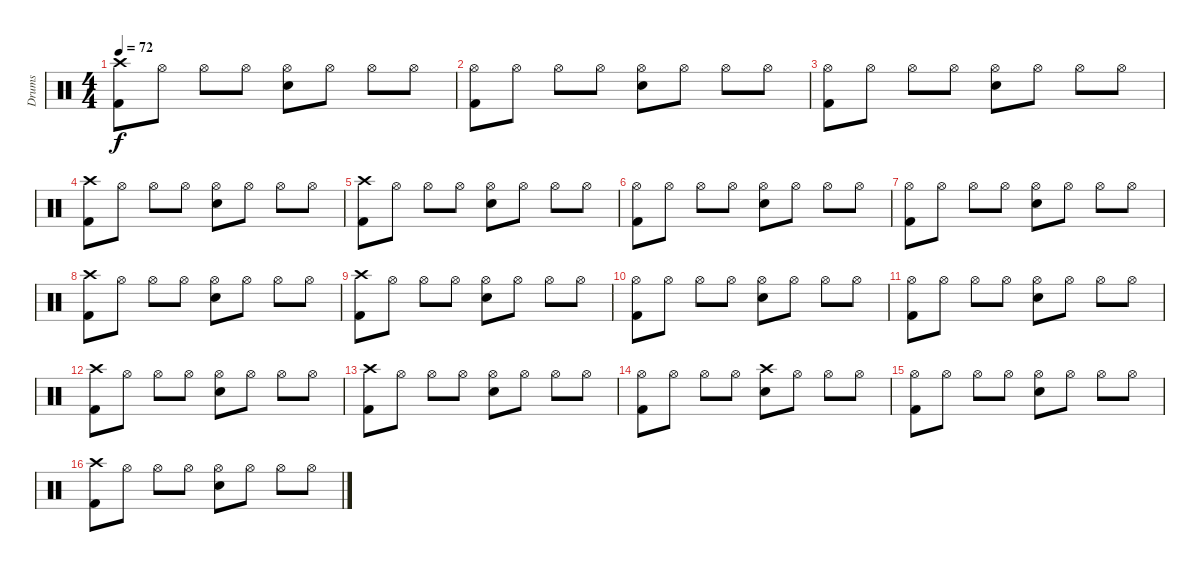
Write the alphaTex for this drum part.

\track ("Drums" "Drums") {instrument percussion}
\staff {score}
\articulation defaults
\ts (4 4)
\tempo 72
\clef neutral
\ks c
("Crash high (hit)" "Kick (hit) 2").8{dy f} "Hi-Hat (open)".8 "Hi-Hat (open)".8 "Hi-Hat (open)".8 ("Hi-Hat (open)" "Electric Snare (hit)").8 "Hi-Hat (open)".8 "Hi-Hat (open)".8 "Hi-Hat (open)".8 |
("Hi-Hat (open)" "Kick (hit) 2").8 "Hi-Hat (open)".8 "Hi-Hat (open)".8 "Hi-Hat (open)".8 ("Hi-Hat (open)" "Electric Snare (hit)").8 "Hi-Hat (open)".8 "Hi-Hat (open)".8 "Hi-Hat (open)".8 |
("Hi-Hat (open)" "Kick (hit) 2").8 "Hi-Hat (open)".8 "Hi-Hat (open)".8 "Hi-Hat (open)".8 ("Hi-Hat (open)" "Electric Snare (hit)").8 "Hi-Hat (open)".8 "Hi-Hat (open)".8 "Hi-Hat (open)".8 |
("Crash high (hit)" "Kick (hit) 2").8 "Hi-Hat (open)".8 "Hi-Hat (open)".8 "Hi-Hat (open)".8 ("Hi-Hat (open)" "Electric Snare (hit)").8 "Hi-Hat (open)".8 "Hi-Hat (open)".8 "Hi-Hat (open)".8 |
("Crash high (hit)" "Kick (hit) 2").8 "Hi-Hat (open)".8 "Hi-Hat (open)".8 "Hi-Hat (open)".8 ("Hi-Hat (open)" "Electric Snare (hit)").8 "Hi-Hat (open)".8 "Hi-Hat (open)".8 "Hi-Hat (open)".8 |
("Hi-Hat (open)" "Kick (hit) 2").8 "Hi-Hat (open)".8 "Hi-Hat (open)".8 "Hi-Hat (open)".8 ("Hi-Hat (open)" "Electric Snare (hit)").8 "Hi-Hat (open)".8 "Hi-Hat (open)".8 "Hi-Hat (open)".8 |
("Hi-Hat (open)" "Kick (hit) 2").8 "Hi-Hat (open)".8 "Hi-Hat (open)".8 "Hi-Hat (open)".8 ("Hi-Hat (open)" "Electric Snare (hit)").8 "Hi-Hat (open)".8 "Hi-Hat (open)".8 "Hi-Hat (open)".8 |
("Crash high (hit)" "Kick (hit) 2").8 "Hi-Hat (open)".8 "Hi-Hat (open)".8 "Hi-Hat (open)".8 ("Hi-Hat (open)" "Electric Snare (hit)").8 "Hi-Hat (open)".8 "Hi-Hat (open)".8 "Hi-Hat (open)".8 |
("Crash high (hit)" "Kick (hit) 2").8 "Hi-Hat (open)".8 "Hi-Hat (open)".8 "Hi-Hat (open)".8 ("Hi-Hat (open)" "Electric Snare (hit)").8 "Hi-Hat (open)".8 "Hi-Hat (open)".8 "Hi-Hat (open)".8 |
("Hi-Hat (open)" "Kick (hit) 2").8 "Hi-Hat (open)".8 "Hi-Hat (open)".8 "Hi-Hat (open)".8 ("Hi-Hat (open)" "Electric Snare (hit)").8 "Hi-Hat (open)".8 "Hi-Hat (open)".8 "Hi-Hat (open)".8 |
("Hi-Hat (open)" "Kick (hit) 2").8 "Hi-Hat (open)".8 "Hi-Hat (open)".8 "Hi-Hat (open)".8 ("Hi-Hat (open)" "Electric Snare (hit)").8 "Hi-Hat (open)".8 "Hi-Hat (open)".8 "Hi-Hat (open)".8 |
("Crash high (hit)" "Kick (hit) 2").8 "Hi-Hat (open)".8 "Hi-Hat (open)".8 "Hi-Hat (open)".8 ("Hi-Hat (open)" "Electric Snare (hit)").8 "Hi-Hat (open)".8 "Hi-Hat (open)".8 "Hi-Hat (open)".8 |
("Crash high (hit)" "Kick (hit) 2").8 "Hi-Hat (open)".8 "Hi-Hat (open)".8 "Hi-Hat (open)".8 ("Hi-Hat (open)" "Electric Snare (hit)").8 "Hi-Hat (open)".8 "Hi-Hat (open)".8 "Hi-Hat (open)".8 |
("Hi-Hat (open)" "Kick (hit) 2").8 "Hi-Hat (open)".8 "Hi-Hat (open)".8 "Hi-Hat (open)".8 ("Crash high (hit)" "Electric Snare (hit)").8 "Hi-Hat (open)".8 "Hi-Hat (open)".8 "Hi-Hat (open)".8 |
("Hi-Hat (open)" "Kick (hit) 2").8 "Hi-Hat (open)".8 "Hi-Hat (open)".8 "Hi-Hat (open)".8 ("Hi-Hat (open)" "Electric Snare (hit)").8 "Hi-Hat (open)".8 "Hi-Hat (open)".8 "Hi-Hat (open)".8 |
("Crash high (hit)" "Kick (hit) 2").8 "Hi-Hat (open)".8 "Hi-Hat (open)".8 "Hi-Hat (open)".8 ("Hi-Hat (open)" "Electric Snare (hit)").8 "Hi-Hat (open)".8 "Hi-Hat (open)".8 "Hi-Hat (open)".8
